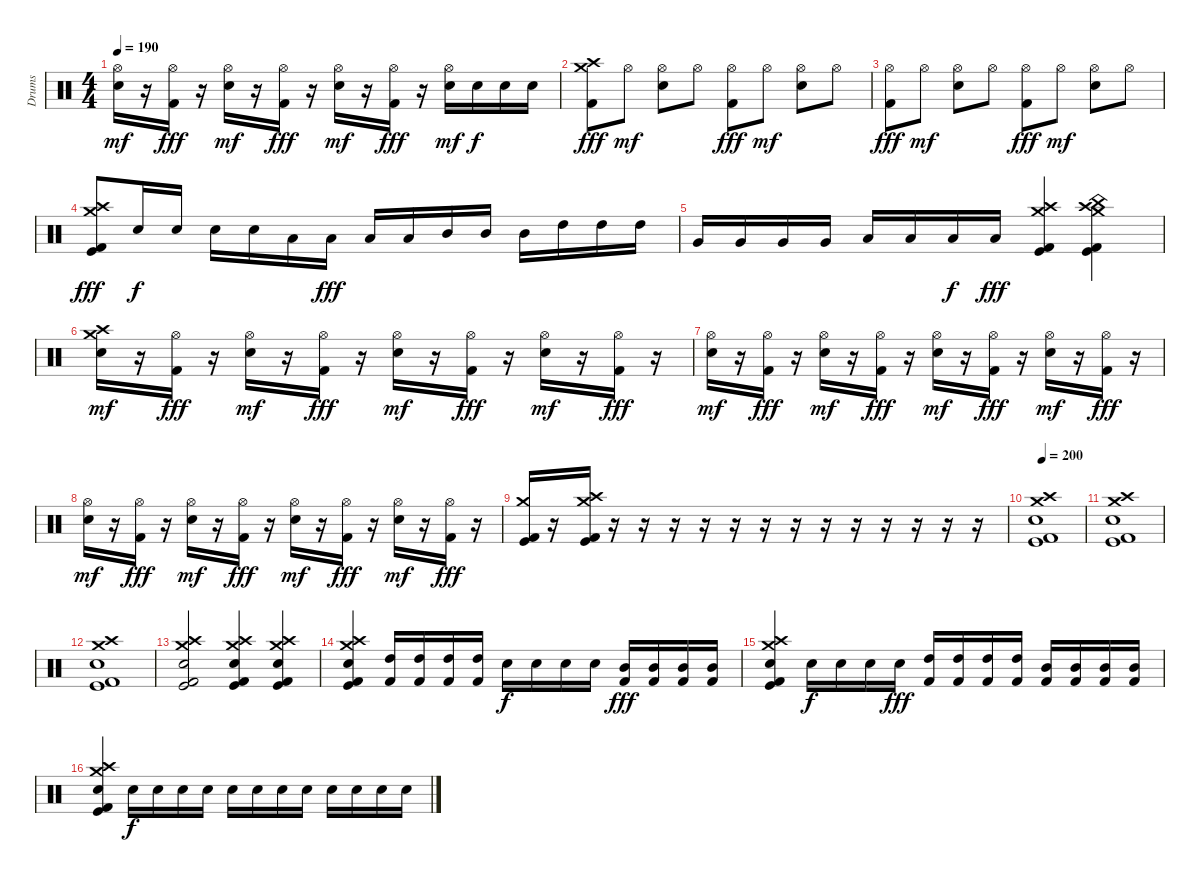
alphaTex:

\track ("Drums" "Drums") {instrument percussion}
\staff {score}
\articulation defaults
\ts (4 4)
\tempo 190
\clef neutral
\ks c
("Hi-Hat (open)" "Electric Snare (hit)").16{dy mf} r.16 ("Hi-Hat (open)" "Kick (hit) 2").16{dy fff} r.16 ("Hi-Hat (open)" "Electric Snare (hit)").16{dy mf} r.16 ("Hi-Hat (open)" "Kick (hit) 2").16{dy fff} r.16 ("Hi-Hat (open)" "Electric Snare (hit)").16{dy mf} r.16 ("Hi-Hat (open)" "Kick (hit) 2").16{dy fff} r.16 ("Hi-Hat (open)" "Electric Snare (hit)").16{dy mf} "Electric Snare (hit)".16{dy f} "Electric Snare (hit)".16 "Electric Snare (hit)".16 |
("Crash medium (hit)" "Crash high (hit)" "Kick (hit) 2").8{dy fff} "Hi-Hat (open)".8{dy mf} ("Hi-Hat (open)" "Electric Snare (hit)").8 "Hi-Hat (open)".8 ("Hi-Hat (open)" "Kick (hit) 2").8{dy fff} "Hi-Hat (open)".8{dy mf} ("Hi-Hat (open)" "Electric Snare (hit)").8 "Hi-Hat (open)".8 |
("Hi-Hat (open)" "Kick (hit) 2").8{dy fff} "Hi-Hat (open)".8{dy mf} ("Hi-Hat (open)" "Electric Snare (hit)").8 "Hi-Hat (open)".8 ("Hi-Hat (open)" "Kick (hit) 2").8{dy fff} "Hi-Hat (open)".8{dy mf} ("Hi-Hat (open)" "Electric Snare (hit)").8 "Hi-Hat (open)".8 |
("Crash medium (hit)" "Crash high (hit)" "Kick (hit)" "Kick (hit) 2").8{dy fff} "Electric Snare (hit)".16{dy f} "Electric Snare (hit)".16 "Electric Snare (hit)".16 "Electric Snare (hit)".16 "Low Tom (hit)".16 "Low Tom (hit)".16{dy fff} "Low Tom (hit)".16 "Low Tom (hit)".16 "Mid Tom (hit)".16 "Mid Tom (hit)".16 "Mid Tom (hit)".16 "High Tom (hit)".16 "High Tom (hit)".16 "High Tom (hit)".16 |
"Very Low Tom (hit)".16 "Very Low Tom (hit)".16 "Very Low Tom (hit)".16 "Very Low Tom (hit)".16 "Low Floor Tom (hit)".16 "Low Floor Tom (hit)".16 "Low Floor Tom (hit)".16{dy f} "Low Floor Tom (hit)".16{dy fff} ("Crash medium (hit)" "Crash high (hit)" "Kick (hit)" "Kick (hit) 2").4 ("Crash medium (hit)" "Crash high (hit)" "China (hit)" "Kick (hit)" "Kick (hit) 2").4 |
("Crash medium (hit)" "Crash high (hit)" "Electric Snare (hit)").16{dy mf} r.16 ("Hi-Hat (open)" "Kick (hit) 2").16{dy fff} r.16 ("Hi-Hat (open)" "Electric Snare (hit)").16{dy mf} r.16 ("Hi-Hat (open)" "Kick (hit) 2").16{dy fff} r.16 ("Hi-Hat (open)" "Electric Snare (hit)").16{dy mf} r.16 ("Hi-Hat (open)" "Kick (hit) 2").16{dy fff} r.16 ("Hi-Hat (open)" "Electric Snare (hit)").16{dy mf} r.16 ("Hi-Hat (open)" "Kick (hit) 2").16{dy fff} r.16 |
("Hi-Hat (open)" "Electric Snare (hit)").16{dy mf} r.16 ("Hi-Hat (open)" "Kick (hit) 2").16{dy fff} r.16 ("Hi-Hat (open)" "Electric Snare (hit)").16{dy mf} r.16 ("Hi-Hat (open)" "Kick (hit) 2").16{dy fff} r.16 ("Hi-Hat (open)" "Electric Snare (hit)").16{dy mf} r.16 ("Hi-Hat (open)" "Kick (hit) 2").16{dy fff} r.16 ("Hi-Hat (open)" "Electric Snare (hit)").16{dy mf} r.16 ("Hi-Hat (open)" "Kick (hit) 2").16{dy fff} r.16 |
("Hi-Hat (open)" "Electric Snare (hit)").16{dy mf} r.16 ("Hi-Hat (open)" "Kick (hit) 2").16{dy fff} r.16 ("Hi-Hat (open)" "Electric Snare (hit)").16{dy mf} r.16 ("Hi-Hat (open)" "Kick (hit) 2").16{dy fff} r.16 ("Hi-Hat (open)" "Electric Snare (hit)").16{dy mf} r.16 ("Hi-Hat (open)" "Kick (hit) 2").16{dy fff} r.16 ("Hi-Hat (open)" "Electric Snare (hit)").16{dy mf} r.16 ("Hi-Hat (open)" "Kick (hit) 2").16{dy fff} r.16 |
("Crash medium (hit)" "Kick (hit)" "Kick (hit) 2").16 r.16 ("Crash medium (hit)" "Crash high (hit)" "Kick (hit)" "Kick (hit) 2").16 r.16 r.16 r.16 r.16 r.16 r.16 r.16 r.16 r.16 r.16 r.16 r.16 r.16 |
\tempo 200
("Crash medium (hit)" "Crash high (hit)" "Electric Snare (hit)" "Kick (hit)" "Kick (hit) 2").1 |
("Crash medium (hit)" "Crash high (hit)" "Electric Snare (hit)" "Kick (hit)" "Kick (hit) 2").1 |
("Crash medium (hit)" "Crash high (hit)" "Electric Snare (hit)" "Kick (hit)" "Kick (hit) 2").1 |
("Crash medium (hit)" "Crash high (hit)" "Electric Snare (hit)" "Kick (hit)" "Kick (hit) 2").2 ("Crash medium (hit)" "Crash high (hit)" "Electric Snare (hit)" "Kick (hit)" "Kick (hit) 2").4 ("Crash medium (hit)" "Crash high (hit)" "Electric Snare (hit)" "Kick (hit)" "Kick (hit) 2").4 |
("Crash medium (hit)" "Crash high (hit)" "Electric Snare (hit)" "Kick (hit)" "Kick (hit) 2").4 ("High Tom (hit)" "Kick (hit) 2").16 ("High Tom (hit)" "Kick (hit) 2").16 ("High Tom (hit)" "Kick (hit) 2").16 ("High Tom (hit)" "Kick (hit) 2").16 "Electric Snare (hit)".16{dy f} "Electric Snare (hit)".16 "Electric Snare (hit)".16 "Electric Snare (hit)".16 ("Mid Tom (hit)" "Kick (hit) 2").16{dy fff} ("Mid Tom (hit)" "Kick (hit) 2").16 ("Mid Tom (hit)" "Kick (hit) 2").16 ("Mid Tom (hit)" "Kick (hit) 2").16 |
("Crash medium (hit)" "Crash high (hit)" "Electric Snare (hit)" "Kick (hit)" "Kick (hit) 2").4 "Electric Snare (hit)".16{dy f} "Electric Snare (hit)".16 "Electric Snare (hit)".16 "Electric Snare (hit)".16{dy fff} ("High Tom (hit)" "Kick (hit) 2").16 ("High Tom (hit)" "Kick (hit) 2").16 ("High Tom (hit)" "Kick (hit) 2").16 ("High Tom (hit)" "Kick (hit) 2").16 ("Mid Tom (hit)" "Kick (hit) 2").16 ("Mid Tom (hit)" "Kick (hit) 2").16 ("Mid Tom (hit)" "Kick (hit) 2").16 ("Mid Tom (hit)" "Kick (hit) 2").16 |
("Crash medium (hit)" "Crash high (hit)" "Electric Snare (hit)" "Kick (hit)" "Kick (hit) 2").4 "Electric Snare (hit)".16{dy f} "Electric Snare (hit)".16 "Electric Snare (hit)".16 "Electric Snare (hit)".16 "Electric Snare (hit)".16 "Electric Snare (hit)".16 "Electric Snare (hit)".16 "Electric Snare (hit)".16 "Electric Snare (hit)".16 "Electric Snare (hit)".16 "Electric Snare (hit)".16 "Electric Snare (hit)".16
